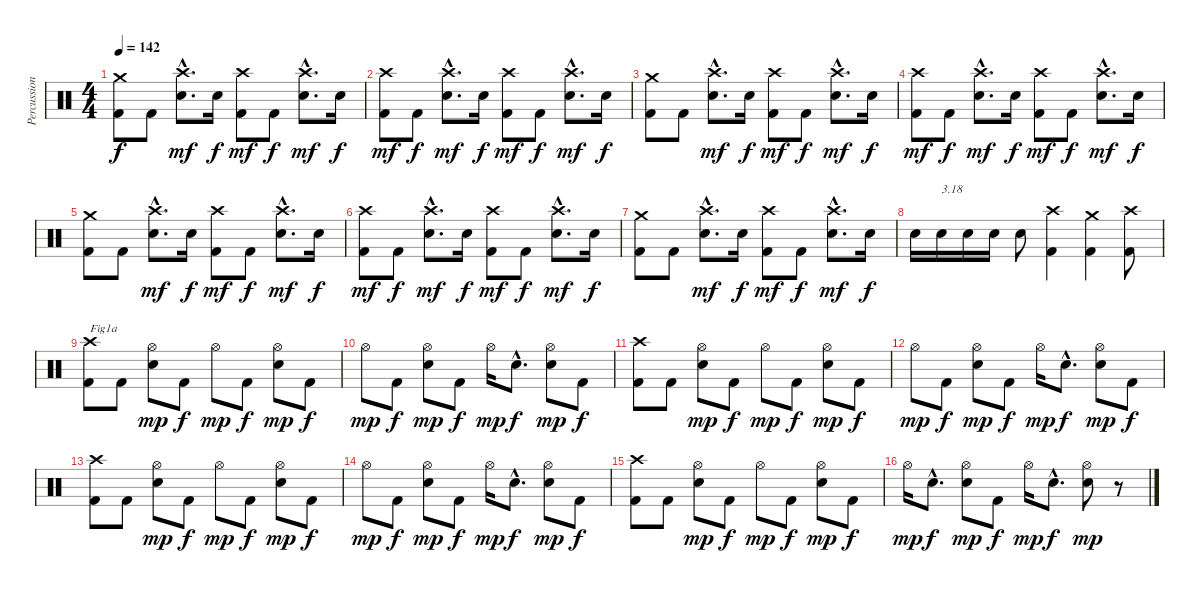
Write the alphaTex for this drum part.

\track ("Percussions" "Percussion") {instrument percussion}
\staff {score}
\articulation defaults
\ts (4 4)
\tempo 142
\clef neutral
\ks c
("Kick (hit) 2" "Crash medium (hit)").8{dy f} "Kick (hit) 2".8 ("Electric Snare (hit)"{hac} "Crash high (hit)"{hac}).8{d dy mf} "Electric Snare (hit)".16{dy f} ("Kick (hit) 2" "Crash high (hit)").8{dy mf} "Kick (hit) 2".8{dy f} ("Electric Snare (hit)"{hac} "Crash high (hit)"{hac}).8{d dy mf} "Electric Snare (hit)".16{dy f} |
("Kick (hit) 2" "Crash high (hit)").8{dy mf} "Kick (hit) 2".8{dy f} ("Electric Snare (hit)"{hac} "Crash high (hit)"{hac}).8{d dy mf} "Electric Snare (hit)".16{dy f} ("Kick (hit) 2" "Crash high (hit)").8{dy mf} "Kick (hit) 2".8{dy f} ("Electric Snare (hit)"{hac} "Crash high (hit)"{hac}).8{d dy mf} "Electric Snare (hit)".16{dy f} |
("Kick (hit) 2" "Crash medium (hit)").8 "Kick (hit) 2".8 ("Electric Snare (hit)"{hac} "Crash high (hit)"{hac}).8{d dy mf} "Electric Snare (hit)".16{dy f} ("Kick (hit) 2" "Crash high (hit)").8{dy mf} "Kick (hit) 2".8{dy f} ("Electric Snare (hit)"{hac} "Crash high (hit)"{hac}).8{d dy mf} "Electric Snare (hit)".16{dy f} |
("Kick (hit) 2" "Crash high (hit)").8{dy mf} "Kick (hit) 2".8{dy f} ("Electric Snare (hit)"{hac} "Crash high (hit)"{hac}).8{d dy mf} "Electric Snare (hit)".16{dy f} ("Kick (hit) 2" "Crash high (hit)").8{dy mf} "Kick (hit) 2".8{dy f} ("Electric Snare (hit)"{hac} "Crash high (hit)"{hac}).8{d dy mf} "Electric Snare (hit)".16{dy f} |
("Kick (hit) 2" "Crash medium (hit)").8 "Kick (hit) 2".8 ("Electric Snare (hit)"{hac} "Crash high (hit)"{hac}).8{d dy mf} "Electric Snare (hit)".16{dy f} ("Kick (hit) 2" "Crash high (hit)").8{dy mf} "Kick (hit) 2".8{dy f} ("Electric Snare (hit)"{hac} "Crash high (hit)"{hac}).8{d dy mf} "Electric Snare (hit)".16{dy f} |
("Kick (hit) 2" "Crash high (hit)").8{dy mf} "Kick (hit) 2".8{dy f} ("Electric Snare (hit)"{hac} "Crash high (hit)"{hac}).8{d dy mf} "Electric Snare (hit)".16{dy f} ("Kick (hit) 2" "Crash high (hit)").8{dy mf} "Kick (hit) 2".8{dy f} ("Electric Snare (hit)"{hac} "Crash high (hit)"{hac}).8{d dy mf} "Electric Snare (hit)".16{dy f} |
("Kick (hit) 2" "Crash medium (hit)").8 "Kick (hit) 2".8 ("Electric Snare (hit)"{hac} "Crash high (hit)"{hac}).8{d dy mf} "Electric Snare (hit)".16{dy f} ("Kick (hit) 2" "Crash high (hit)").8{dy mf} "Kick (hit) 2".8{dy f} ("Electric Snare (hit)"{hac} "Crash high (hit)"{hac}).8{d dy mf} "Electric Snare (hit)".16{dy f} |
"Electric Snare (hit)".16 "Electric Snare (hit)".16{txt "3.18"} "Electric Snare (hit)".16 "Electric Snare (hit)".16 "Electric Snare (hit)".8 ("Kick (hit) 2" "Crash high (hit)").4 ("Kick (hit) 2" "Crash medium (hit)").4 ("Kick (hit) 2" "Crash high (hit)").8 |
("Kick (hit) 2" "Crash high (hit)").8{txt "Fig1a"} "Kick (hit) 2".8 ("Electric Snare (hit)" "Hi-Hat (open)").8{dy mp} "Kick (hit) 2".8{dy f} "Hi-Hat (open)".8{dy mp} "Kick (hit) 2".8{dy f} ("Electric Snare (hit)" "Hi-Hat (open)").8{dy mp} "Kick (hit) 2".8{dy f} |
"Hi-Hat (open)".8{dy mp} "Kick (hit) 2".8{dy f} ("Electric Snare (hit)" "Hi-Hat (open)").8{dy mp} "Kick (hit) 2".8{dy f} "Hi-Hat (open)".16{dy mp} "Electric Snare (hit)"{hac}.8{d dy f} ("Electric Snare (hit)" "Hi-Hat (open)").8{dy mp} "Kick (hit) 2".8{dy f} |
("Kick (hit) 2" "Crash high (hit)").8 "Kick (hit) 2".8 ("Electric Snare (hit)" "Hi-Hat (open)").8{dy mp} "Kick (hit) 2".8{dy f} "Hi-Hat (open)".8{dy mp} "Kick (hit) 2".8{dy f} ("Electric Snare (hit)" "Hi-Hat (open)").8{dy mp} "Kick (hit) 2".8{dy f} |
"Hi-Hat (open)".8{dy mp} "Kick (hit) 2".8{dy f} ("Electric Snare (hit)" "Hi-Hat (open)").8{dy mp} "Kick (hit) 2".8{dy f} "Hi-Hat (open)".16{dy mp} "Electric Snare (hit)"{hac}.8{d dy f} ("Electric Snare (hit)" "Hi-Hat (open)").8{dy mp} "Kick (hit) 2".8{dy f} |
("Kick (hit) 2" "Crash high (hit)").8 "Kick (hit) 2".8 ("Electric Snare (hit)" "Hi-Hat (open)").8{dy mp} "Kick (hit) 2".8{dy f} "Hi-Hat (open)".8{dy mp} "Kick (hit) 2".8{dy f} ("Electric Snare (hit)" "Hi-Hat (open)").8{dy mp} "Kick (hit) 2".8{dy f} |
"Hi-Hat (open)".8{dy mp} "Kick (hit) 2".8{dy f} ("Electric Snare (hit)" "Hi-Hat (open)").8{dy mp} "Kick (hit) 2".8{dy f} "Hi-Hat (open)".16{dy mp} "Electric Snare (hit)"{hac}.8{d dy f} ("Electric Snare (hit)" "Hi-Hat (open)").8{dy mp} "Kick (hit) 2".8{dy f} |
("Kick (hit) 2" "Crash high (hit)").8 "Kick (hit) 2".8 ("Electric Snare (hit)" "Hi-Hat (open)").8{dy mp} "Kick (hit) 2".8{dy f} "Hi-Hat (open)".8{dy mp} "Kick (hit) 2".8{dy f} ("Electric Snare (hit)" "Hi-Hat (open)").8{dy mp} "Kick (hit) 2".8{dy f} |
"Hi-Hat (open)".16{dy mp} "Electric Snare (hit)"{hac}.8{d dy f} ("Electric Snare (hit)" "Hi-Hat (open)").8{dy mp} "Kick (hit) 2".8{dy f} "Hi-Hat (open)".16{dy mp} "Electric Snare (hit)"{hac}.8{d dy f} ("Electric Snare (hit)" "Hi-Hat (open)").8{dy mp} r.8
